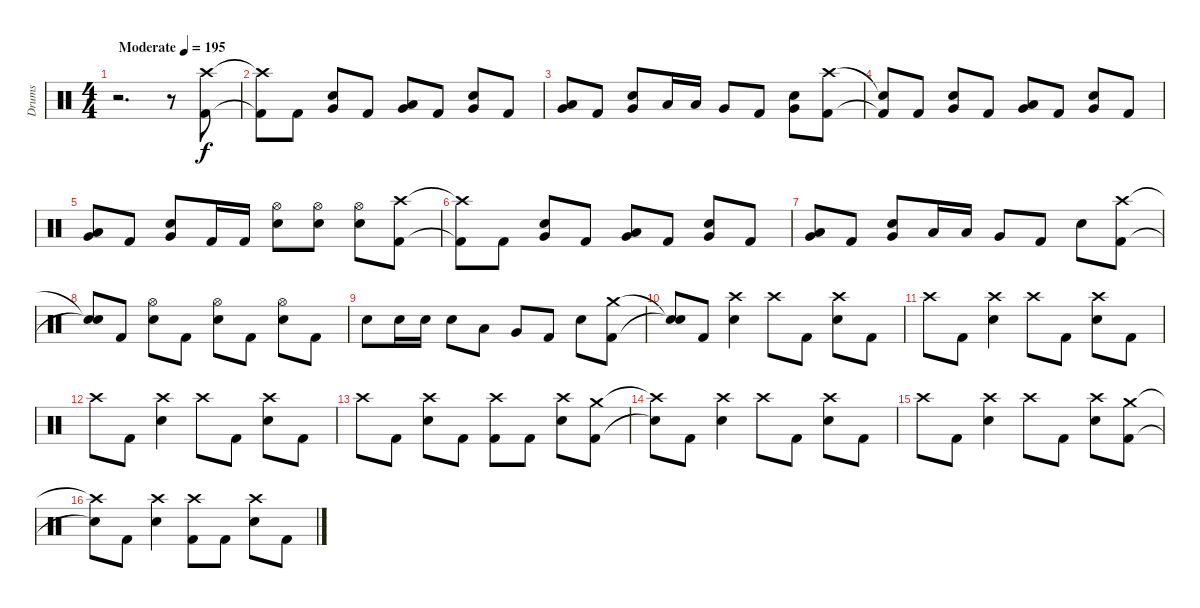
\track ("Drums" "Drums") {instrument percussion}
\staff {score}
\articulation defaults
\ts (4 4)
\tempo (195 "Moderate")
\clef neutral
\ks c
r.2{d dy f} r.8 ("Crash high (hit)" "Kick (hit) 2").8 |
("Crash high (hit)"{t} "Kick (hit) 2"{t}).8 "Kick (hit) 2".8 ("Very Low Tom (hit)" "Electric Snare (hit)").8 "Kick (hit) 2".8 ("Very Low Tom (hit)" "Low Tom (hit)").8 "Kick (hit) 2".8 ("Very Low Tom (hit)" "Electric Snare (hit)").8 "Kick (hit) 2".8 |
("Very Low Tom (hit)" "Low Tom (hit)").8 "Kick (hit) 2".8 ("Very Low Tom (hit)" "Electric Snare (hit)").8 "Low Tom (hit)".16 "Low Tom (hit)".16 "Very Low Tom (hit)".8 "Kick (hit) 2".8 ("Very Low Tom (hit)" "Electric Snare (hit)").8 ("Crash high (hit)" "Kick (hit) 2").8 |
("Snare (hit)"{t} "Kick (hit) 2"{t}).8 "Kick (hit) 2".8 ("Very Low Tom (hit)" "Electric Snare (hit)").8 "Kick (hit) 2".8 ("Very Low Tom (hit)" "Low Tom (hit)").8 "Kick (hit) 2".8 ("Very Low Tom (hit)" "Electric Snare (hit)").8 "Kick (hit) 2".8 |
("Very Low Tom (hit)" "Low Tom (hit)").8 "Kick (hit) 2".8 ("Very Low Tom (hit)" "Electric Snare (hit)").8 "Kick (hit) 2".16 "Kick (hit) 2".16 ("Hi-Hat (open)" "Electric Snare (hit)").8 ("Hi-Hat (open)" "Electric Snare (hit)").8 ("Hi-Hat (open)" "Electric Snare (hit)").8 ("Crash high (hit)" "Kick (hit) 2").8 |
("Crash high (hit)"{t} "Kick (hit) 2"{t}).8 "Kick (hit) 2".8 ("Very Low Tom (hit)" "Electric Snare (hit)").8 "Kick (hit) 2".8 ("Very Low Tom (hit)" "Low Tom (hit)").8 "Kick (hit) 2".8 ("Very Low Tom (hit)" "Electric Snare (hit)").8 "Kick (hit) 2".8 |
("Very Low Tom (hit)" "Low Tom (hit)").8 "Kick (hit) 2".8 ("Very Low Tom (hit)" "Electric Snare (hit)").8 "Low Tom (hit)".16 "Low Tom (hit)".16 "Very Low Tom (hit)".8 "Kick (hit) 2".8 "Electric Snare (hit)".8 ("Crash high (hit)" "Kick (hit) 2").8 |
("Snare (hit)"{t} "Snare (hit)"{t}).8 "Kick (hit) 2".8 ("Hi-Hat (open)" "Electric Snare (hit)").8 "Kick (hit) 2".8 ("Hi-Hat (open)" "Electric Snare (hit)").8 "Kick (hit) 2".8 ("Hi-Hat (open)" "Electric Snare (hit)").8 "Kick (hit) 2".8 |
"Electric Snare (hit)".8 "Electric Snare (hit)".16 "Electric Snare (hit)".16 "Electric Snare (hit)".8 "Low Tom (hit)".8 "Very Low Tom (hit)".8 "Kick (hit) 2".8 "Electric Snare (hit)".8 ("Crash medium (hit)" "Kick (hit) 2").8 |
("Snare (hit)"{t} "Snare (hit)"{t}).8 "Kick (hit) 2".8 ("Crash high (hit)" "Electric Snare (hit)").4 "Crash high (hit)".8 "Kick (hit) 2".8 ("Crash high (hit)" "Electric Snare (hit)").8 "Kick (hit) 2".8 |
"Crash high (hit)".8 "Kick (hit) 2".8 ("Crash high (hit)" "Electric Snare (hit)").4 "Crash high (hit)".8 "Kick (hit) 2".8 ("Crash high (hit)" "Electric Snare (hit)").8 "Kick (hit) 2".8 |
"Crash high (hit)".8 "Kick (hit) 2".8 ("Crash high (hit)" "Electric Snare (hit)").4 "Crash high (hit)".8 "Kick (hit) 2".8 ("Crash high (hit)" "Electric Snare (hit)").8 "Kick (hit) 2".8 |
"Crash high (hit)".8 "Kick (hit) 2".8 ("Crash high (hit)" "Electric Snare (hit)").8 "Kick (hit) 2".8 ("Crash high (hit)" "Kick (hit) 2").8 "Kick (hit) 2".8 ("Crash high (hit)" "Electric Snare (hit)").8 ("Crash medium (hit)" "Kick (hit) 2").8 |
("Crash high (hit)"{t} "Snare (hit)"{t}).8 "Kick (hit) 2".8 ("Crash high (hit)" "Electric Snare (hit)").4 "Crash high (hit)".8 "Kick (hit) 2".8 ("Crash high (hit)" "Electric Snare (hit)").8 "Kick (hit) 2".8 |
"Crash high (hit)".8 "Kick (hit) 2".8 ("Crash high (hit)" "Electric Snare (hit)").4 "Crash high (hit)".8 "Kick (hit) 2".8 ("Crash high (hit)" "Electric Snare (hit)").8 ("Crash medium (hit)" "Kick (hit) 2").8 |
("Crash high (hit)"{t} "Snare (hit)"{t}).8 "Kick (hit) 2".8 ("Crash high (hit)" "Electric Snare (hit)").4 ("Crash high (hit)" "Kick (hit) 2").8 "Kick (hit) 2".8 ("Crash high (hit)" "Electric Snare (hit)").8 "Kick (hit) 2".8
